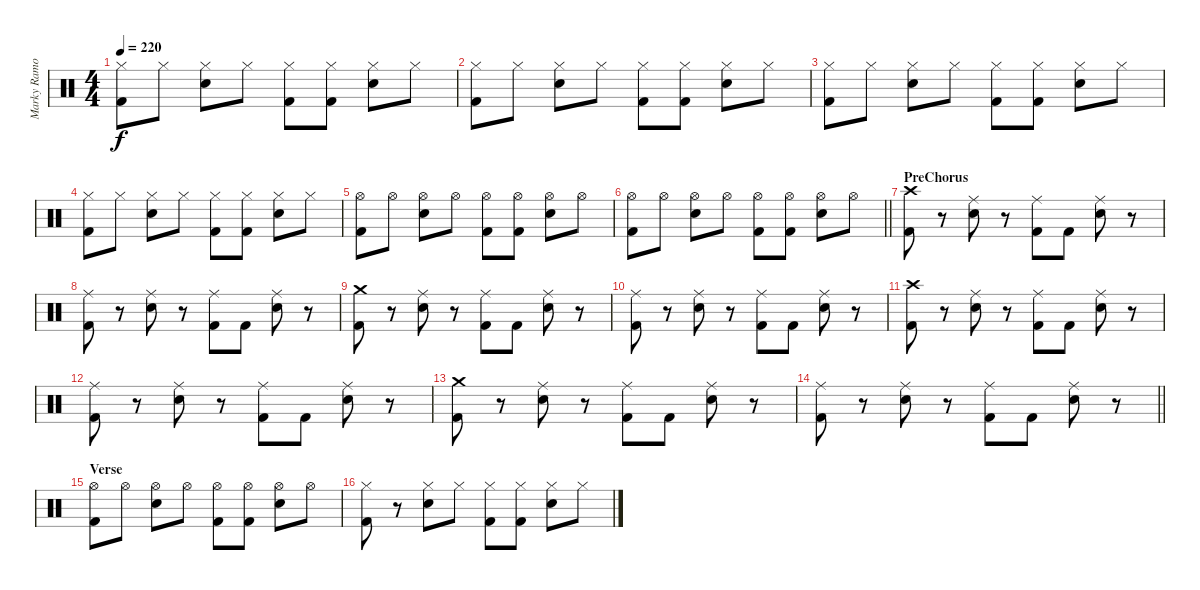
\track ("Marky Ramone" "Marky Ramo") {instrument percussion}
\staff {score}
\articulation defaults
\ts (4 4)
\tempo 220
\clef neutral
\ks c
("Hi-Hat (closed)" "Kick (hit) 2").8{dy f} "Hi-Hat (closed)".8 ("Hi-Hat (closed)" "Electric Snare (hit)").8 "Hi-Hat (closed)".8 ("Hi-Hat (closed)" "Kick (hit) 2").8 ("Hi-Hat (closed)" "Kick (hit) 2").8 ("Hi-Hat (closed)" "Electric Snare (hit)").8 "Hi-Hat (closed)".8 |
("Hi-Hat (closed)" "Kick (hit) 2").8 "Hi-Hat (closed)".8 ("Hi-Hat (closed)" "Electric Snare (hit)").8 "Hi-Hat (closed)".8 ("Hi-Hat (closed)" "Kick (hit) 2").8 ("Hi-Hat (closed)" "Kick (hit) 2").8 ("Hi-Hat (closed)" "Electric Snare (hit)").8 "Hi-Hat (closed)".8 |
("Hi-Hat (closed)" "Kick (hit) 2").8 "Hi-Hat (closed)".8 ("Hi-Hat (closed)" "Electric Snare (hit)").8 "Hi-Hat (closed)".8 ("Hi-Hat (closed)" "Kick (hit) 2").8 ("Hi-Hat (closed)" "Kick (hit) 2").8 ("Hi-Hat (closed)" "Electric Snare (hit)").8 "Hi-Hat (closed)".8 |
("Hi-Hat (closed)" "Kick (hit) 2").8 "Hi-Hat (closed)".8 ("Hi-Hat (closed)" "Electric Snare (hit)").8 "Hi-Hat (closed)".8 ("Hi-Hat (closed)" "Kick (hit) 2").8 ("Hi-Hat (closed)" "Kick (hit) 2").8 ("Hi-Hat (closed)" "Electric Snare (hit)").8 "Hi-Hat (closed)".8 |
("Hi-Hat (open)" "Kick (hit) 2").8 "Hi-Hat (open)".8 ("Hi-Hat (open)" "Electric Snare (hit)").8 "Hi-Hat (open)".8 ("Hi-Hat (open)" "Kick (hit) 2").8 ("Hi-Hat (open)" "Kick (hit) 2").8 ("Hi-Hat (open)" "Electric Snare (hit)").8 "Hi-Hat (open)".8 |
\barLineRight lightlight
("Hi-Hat (open)" "Kick (hit) 2").8 "Hi-Hat (open)".8 ("Hi-Hat (open)" "Electric Snare (hit)").8 "Hi-Hat (open)".8 ("Hi-Hat (open)" "Kick (hit) 2").8 ("Hi-Hat (open)" "Kick (hit) 2").8 ("Hi-Hat (open)" "Electric Snare (hit)").8 "Hi-Hat (open)".8 |
\section ("" "PreChorus")
("Crash high (hit)" "Kick (hit) 2").8 r.8 ("Ride (middle)" "Electric Snare (hit)").8 r.8 ("Ride (middle)" "Kick (hit) 2").8 "Kick (hit) 2".8 ("Ride (middle)" "Electric Snare (hit)").8 r.8 |
("Ride (middle)" "Kick (hit) 2").8 r.8 ("Ride (middle)" "Electric Snare (hit)").8 r.8 ("Ride (middle)" "Kick (hit) 2").8 "Kick (hit) 2".8 ("Ride (middle)" "Electric Snare (hit)").8 r.8 |
("Crash medium (hit)" "Kick (hit) 2").8 r.8 ("Ride (middle)" "Electric Snare (hit)").8 r.8 ("Ride (middle)" "Kick (hit) 2").8 "Kick (hit) 2".8 ("Ride (middle)" "Electric Snare (hit)").8 r.8 |
("Ride (middle)" "Kick (hit) 2").8 r.8 ("Ride (middle)" "Electric Snare (hit)").8 r.8 ("Ride (middle)" "Kick (hit) 2").8 "Kick (hit) 2".8 ("Ride (middle)" "Electric Snare (hit)").8 r.8 |
("Crash high (hit)" "Kick (hit) 2").8 r.8 ("Ride (middle)" "Electric Snare (hit)").8 r.8 ("Ride (middle)" "Kick (hit) 2").8 "Kick (hit) 2".8 ("Ride (middle)" "Electric Snare (hit)").8 r.8 |
("Ride (middle)" "Kick (hit) 2").8 r.8 ("Ride (middle)" "Electric Snare (hit)").8 r.8 ("Ride (middle)" "Kick (hit) 2").8 "Kick (hit) 2".8 ("Ride (middle)" "Electric Snare (hit)").8 r.8 |
("Crash medium (hit)" "Kick (hit) 2").8 r.8 ("Ride (middle)" "Electric Snare (hit)").8 r.8 ("Ride (middle)" "Kick (hit) 2").8 "Kick (hit) 2".8 ("Ride (middle)" "Electric Snare (hit)").8 r.8 |
\barLineRight lightlight
("Ride (middle)" "Kick (hit) 2").8 r.8 ("Ride (middle)" "Electric Snare (hit)").8 r.8 ("Ride (middle)" "Kick (hit) 2").8 "Kick (hit) 2".8 ("Ride (middle)" "Electric Snare (hit)").8 r.8 |
\section ("" "Verse")
("Hi-Hat (open)" "Kick (hit) 2").8 "Hi-Hat (open)".8 ("Hi-Hat (open)" "Electric Snare (hit)").8 "Hi-Hat (open)".8 ("Hi-Hat (open)" "Kick (hit) 2").8 ("Hi-Hat (open)" "Kick (hit) 2").8 ("Hi-Hat (open)" "Electric Snare (hit)").8 "Hi-Hat (open)".8 |
("Hi-Hat (closed)" "Kick (hit) 2").8 r.8 ("Hi-Hat (closed)" "Electric Snare (hit)").8 "Hi-Hat (closed)".8 ("Hi-Hat (closed)" "Kick (hit) 2").8 ("Hi-Hat (closed)" "Kick (hit) 2").8 ("Hi-Hat (closed)" "Electric Snare (hit)").8 "Hi-Hat (closed)".8
